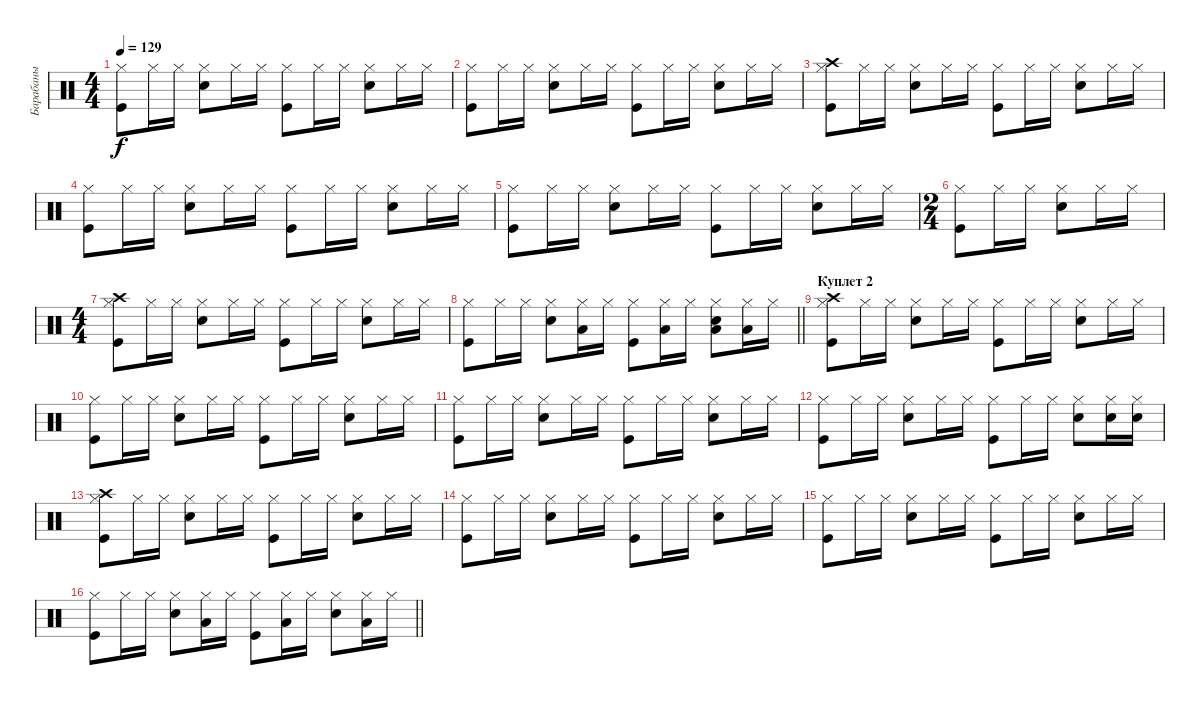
\track ("Барабаны" "Барабаны") {instrument percussion}
\staff {score}
\articulation defaults
\ts (4 4)
\tempo 129
\clef neutral
\ks c
("Kick (hit)" "Hi-Hat (closed)").8{dy f} "Hi-Hat (closed)".16 "Hi-Hat (closed)".16 ("Snare (hit) 2" "Hi-Hat (closed)").8 "Hi-Hat (closed)".16 "Hi-Hat (closed)".16 ("Kick (hit)" "Hi-Hat (closed)").8 "Hi-Hat (closed)".16 "Hi-Hat (closed)".16 ("Snare (hit) 2" "Hi-Hat (closed)").8 "Hi-Hat (closed)".16 "Hi-Hat (closed)".16 |
("Kick (hit)" "Hi-Hat (closed)").8 "Hi-Hat (closed)".16 "Hi-Hat (closed)".16 ("Snare (hit) 2" "Hi-Hat (closed)").8 "Hi-Hat (closed)".16 "Hi-Hat (closed)".16 ("Kick (hit)" "Hi-Hat (closed)").8 "Hi-Hat (closed)".16 "Hi-Hat (closed)".16 ("Snare (hit) 2" "Hi-Hat (closed)").8 "Hi-Hat (closed)".16 "Hi-Hat (closed)".16 |
("Kick (hit)" "Hi-Hat (closed)" "Crash high (hit)").8 "Hi-Hat (closed)".16 "Hi-Hat (closed)".16 ("Snare (hit) 2" "Hi-Hat (closed)").8 "Hi-Hat (closed)".16 "Hi-Hat (closed)".16 ("Kick (hit)" "Hi-Hat (closed)").8 "Hi-Hat (closed)".16 "Hi-Hat (closed)".16 ("Snare (hit) 2" "Hi-Hat (closed)").8 "Hi-Hat (closed)".16 "Hi-Hat (closed)".16 |
("Kick (hit)" "Hi-Hat (closed)").8 "Hi-Hat (closed)".16 "Hi-Hat (closed)".16 ("Snare (hit) 2" "Hi-Hat (closed)").8 "Hi-Hat (closed)".16 "Hi-Hat (closed)".16 ("Kick (hit)" "Hi-Hat (closed)").8 "Hi-Hat (closed)".16 "Hi-Hat (closed)".16 ("Snare (hit) 2" "Hi-Hat (closed)").8 "Hi-Hat (closed)".16 "Hi-Hat (closed)".16 |
("Kick (hit)" "Hi-Hat (closed)").8 "Hi-Hat (closed)".16 "Hi-Hat (closed)".16 ("Snare (hit) 2" "Hi-Hat (closed)").8 "Hi-Hat (closed)".16 "Hi-Hat (closed)".16 ("Kick (hit)" "Hi-Hat (closed)").8 "Hi-Hat (closed)".16 "Hi-Hat (closed)".16 ("Snare (hit) 2" "Hi-Hat (closed)").8 "Hi-Hat (closed)".16 "Hi-Hat (closed)".16 |
\ts (2 4)
("Kick (hit)" "Hi-Hat (closed)").8 "Hi-Hat (closed)".16 "Hi-Hat (closed)".16 ("Snare (hit) 2" "Hi-Hat (closed)").8 "Hi-Hat (closed)".16 "Hi-Hat (closed)".16 |
\ts (4 4)
("Kick (hit)" "Hi-Hat (closed)" "Crash high (hit)").8 "Hi-Hat (closed)".16 "Hi-Hat (closed)".16 ("Snare (hit) 2" "Hi-Hat (closed)").8 "Hi-Hat (closed)".16 "Hi-Hat (closed)".16 ("Kick (hit)" "Hi-Hat (closed)").8 "Hi-Hat (closed)".16 "Hi-Hat (closed)".16 ("Snare (hit) 2" "Hi-Hat (closed)").8 "Hi-Hat (closed)".16 "Hi-Hat (closed)".16 |
\barLineRight lightlight
("Kick (hit)" "Hi-Hat (closed)").8 "Hi-Hat (closed)".16 "Hi-Hat (closed)".16 ("Snare (hit) 2" "Hi-Hat (closed)").8 ("Hi-Hat (closed)" "Low Tom (hit)").16 "Hi-Hat (closed)".16 ("Kick (hit)" "Hi-Hat (closed)").8 ("Hi-Hat (closed)" "Low Tom (hit)").16 "Hi-Hat (closed)".16 ("Snare (hit) 2" "Hi-Hat (closed)" "Low Tom (hit)").8 ("Hi-Hat (closed)" "Low Tom (hit)").16 "Hi-Hat (closed)".16 |
\section ("" "Куплет 2")
("Kick (hit)" "Hi-Hat (closed)" "Crash high (hit)").8 "Hi-Hat (closed)".16 "Hi-Hat (closed)".16 ("Snare (hit) 2" "Hi-Hat (closed)").8 "Hi-Hat (closed)".16 "Hi-Hat (closed)".16 ("Kick (hit)" "Hi-Hat (closed)").8 "Hi-Hat (closed)".16 "Hi-Hat (closed)".16 ("Snare (hit) 2" "Hi-Hat (closed)").8 "Hi-Hat (closed)".16 "Hi-Hat (closed)".16 |
("Kick (hit)" "Hi-Hat (closed)").8 "Hi-Hat (closed)".16 "Hi-Hat (closed)".16 ("Snare (hit) 2" "Hi-Hat (closed)").8 "Hi-Hat (closed)".16 "Hi-Hat (closed)".16 ("Kick (hit)" "Hi-Hat (closed)").8 "Hi-Hat (closed)".16 "Hi-Hat (closed)".16 ("Snare (hit) 2" "Hi-Hat (closed)").8 "Hi-Hat (closed)".16 "Hi-Hat (closed)".16 |
("Kick (hit)" "Hi-Hat (closed)").8 "Hi-Hat (closed)".16 "Hi-Hat (closed)".16 ("Snare (hit) 2" "Hi-Hat (closed)").8 "Hi-Hat (closed)".16 "Hi-Hat (closed)".16 ("Kick (hit)" "Hi-Hat (closed)").8 "Hi-Hat (closed)".16 "Hi-Hat (closed)".16 ("Snare (hit) 2" "Hi-Hat (closed)").8 "Hi-Hat (closed)".16 "Hi-Hat (closed)".16 |
("Kick (hit)" "Hi-Hat (closed)").8 "Hi-Hat (closed)".16 "Hi-Hat (closed)".16 ("Snare (hit) 2" "Hi-Hat (closed)").8 "Hi-Hat (closed)".16 "Hi-Hat (closed)".16 ("Kick (hit)" "Hi-Hat (closed)").8 "Hi-Hat (closed)".16 "Hi-Hat (closed)".16 ("Snare (hit) 2" "Hi-Hat (closed)").8 ("Snare (hit) 2" "Hi-Hat (closed)").16 ("Snare (hit) 2" "Hi-Hat (closed)").16 |
("Kick (hit)" "Hi-Hat (closed)" "Crash high (hit)").8 "Hi-Hat (closed)".16 "Hi-Hat (closed)".16 ("Snare (hit) 2" "Hi-Hat (closed)").8 "Hi-Hat (closed)".16 "Hi-Hat (closed)".16 ("Kick (hit)" "Hi-Hat (closed)").8 "Hi-Hat (closed)".16 "Hi-Hat (closed)".16 ("Snare (hit) 2" "Hi-Hat (closed)").8 "Hi-Hat (closed)".16 "Hi-Hat (closed)".16 |
("Kick (hit)" "Hi-Hat (closed)").8 "Hi-Hat (closed)".16 "Hi-Hat (closed)".16 ("Snare (hit) 2" "Hi-Hat (closed)").8 "Hi-Hat (closed)".16 "Hi-Hat (closed)".16 ("Kick (hit)" "Hi-Hat (closed)").8 "Hi-Hat (closed)".16 "Hi-Hat (closed)".16 ("Snare (hit) 2" "Hi-Hat (closed)").8 "Hi-Hat (closed)".16 "Hi-Hat (closed)".16 |
("Kick (hit)" "Hi-Hat (closed)").8 "Hi-Hat (closed)".16 "Hi-Hat (closed)".16 ("Snare (hit) 2" "Hi-Hat (closed)").8 "Hi-Hat (closed)".16 "Hi-Hat (closed)".16 ("Kick (hit)" "Hi-Hat (closed)").8 "Hi-Hat (closed)".16 "Hi-Hat (closed)".16 ("Snare (hit) 2" "Hi-Hat (closed)").8 "Hi-Hat (closed)".16 "Hi-Hat (closed)".16 |
\barLineRight lightlight
("Kick (hit)" "Hi-Hat (closed)").8 "Hi-Hat (closed)".16 "Hi-Hat (closed)".16 ("Snare (hit) 2" "Hi-Hat (closed)").8 ("Hi-Hat (closed)" "Low Tom (hit)").16 "Hi-Hat (closed)".16 ("Kick (hit)" "Hi-Hat (closed)").8 ("Hi-Hat (closed)" "Low Tom (hit)").16 "Hi-Hat (closed)".16 ("Snare (hit) 2" "Hi-Hat (closed)").8 ("Hi-Hat (closed)" "Low Tom (hit)").16 "Hi-Hat (closed)".16
